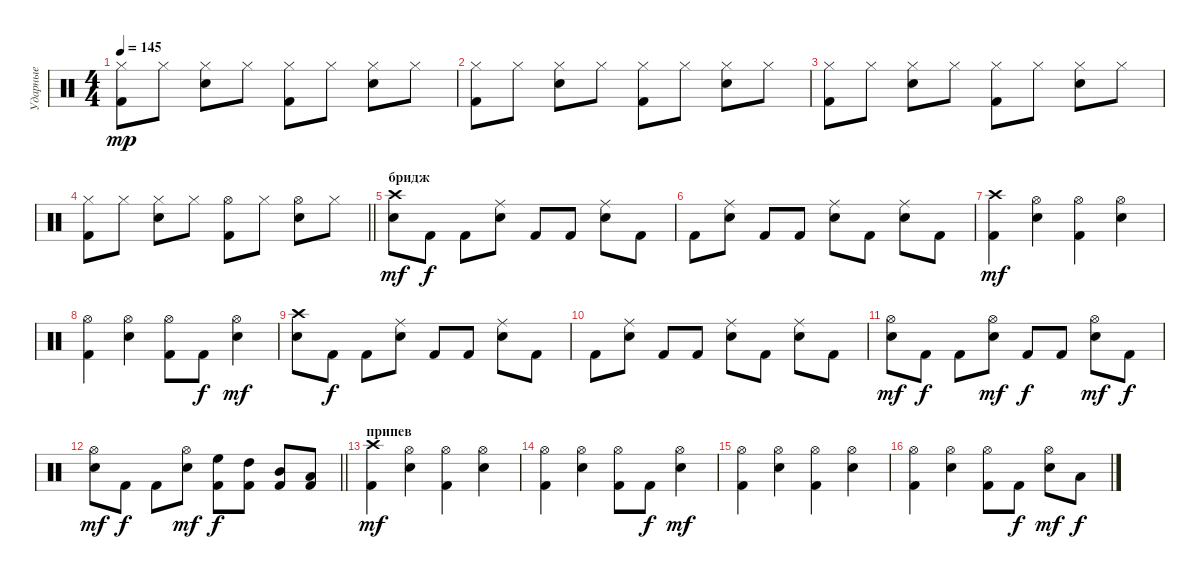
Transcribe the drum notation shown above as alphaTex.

\track ("Ударные" "Ударные") {instrument percussion}
\staff {score}
\articulation defaults
\ts (4 4)
\tempo 145
\clef neutral
\ks c
("Kick (hit) 2" "Hi-Hat (closed)").8{dy mp} "Hi-Hat (closed)".8 ("Snare (hit) 2" "Hi-Hat (closed)").8 "Hi-Hat (closed)".8 ("Kick (hit) 2" "Hi-Hat (closed)").8 "Hi-Hat (closed)".8 ("Snare (hit) 2" "Hi-Hat (closed)").8 "Hi-Hat (closed)".8 |
("Kick (hit) 2" "Hi-Hat (closed)").8 "Hi-Hat (closed)".8 ("Snare (hit) 2" "Hi-Hat (closed)").8 "Hi-Hat (closed)".8 ("Kick (hit) 2" "Hi-Hat (closed)").8 "Hi-Hat (closed)".8 ("Snare (hit) 2" "Hi-Hat (closed)").8 "Hi-Hat (closed)".8 |
("Kick (hit) 2" "Hi-Hat (closed)").8 "Hi-Hat (closed)".8 ("Snare (hit) 2" "Hi-Hat (closed)").8 "Hi-Hat (closed)".8 ("Kick (hit) 2" "Hi-Hat (closed)").8 "Hi-Hat (closed)".8 ("Snare (hit) 2" "Hi-Hat (closed)").8 "Hi-Hat (closed)".8 |
\barLineRight lightlight
("Kick (hit) 2" "Hi-Hat (closed)").8 "Hi-Hat (closed)".8 ("Snare (hit) 2" "Hi-Hat (closed)").8 "Hi-Hat (closed)".8 ("Kick (hit) 2" "Hi-Hat (open)").8 "Hi-Hat (closed)".8 ("Snare (hit) 2" "Hi-Hat (open)").8 "Hi-Hat (closed)".8 |
\section ("" "бридж")
("Snare (hit) 2" "Crash high (hit)").8{dy mf} "Kick (hit) 2".8{dy f} "Kick (hit) 2".8 ("Snare (hit) 2" "Ride (middle)").8 "Kick (hit) 2".8 "Kick (hit) 2".8 ("Snare (hit) 2" "Ride (middle)").8 "Kick (hit) 2".8 |
"Kick (hit) 2".8 ("Snare (hit) 2" "Ride (middle)").8 "Kick (hit) 2".8 "Kick (hit) 2".8 ("Snare (hit) 2" "Ride (middle)").8 "Kick (hit) 2".8 ("Snare (hit) 2" "Ride (middle)").8 "Kick (hit) 2".8 |
("Kick (hit) 2" "Crash high (hit)").4{dy mf} ("Snare (hit) 2" "Hi-Hat (open)").4 ("Kick (hit) 2" "Hi-Hat (open)").4 ("Snare (hit) 2" "Hi-Hat (open)").4 |
("Kick (hit) 2" "Hi-Hat (open)").4 ("Snare (hit) 2" "Hi-Hat (open)").4 ("Kick (hit) 2" "Hi-Hat (open)").8 "Kick (hit) 2".8{dy f} ("Snare (hit) 2" "Hi-Hat (open)").4{dy mf} |
("Snare (hit) 2" "Crash high (hit)").8 "Kick (hit) 2".8{dy f} "Kick (hit) 2".8 ("Snare (hit) 2" "Ride (middle)").8 "Kick (hit) 2".8 "Kick (hit) 2".8 ("Snare (hit) 2" "Ride (middle)").8 "Kick (hit) 2".8 |
"Kick (hit) 2".8 ("Snare (hit) 2" "Ride (middle)").8 "Kick (hit) 2".8 "Kick (hit) 2".8 ("Snare (hit) 2" "Ride (middle)").8 "Kick (hit) 2".8 ("Snare (hit) 2" "Ride (middle)").8 "Kick (hit) 2".8 |
("Snare (hit) 2" "Hi-Hat (open)").8{dy mf} "Kick (hit) 2".8{dy f} "Kick (hit) 2".8 ("Snare (hit) 2" "Hi-Hat (open)").8{dy mf} "Kick (hit) 2".8{dy f} "Kick (hit) 2".8 ("Snare (hit) 2" "Hi-Hat (open)").8{dy mf} "Kick (hit) 2".8{dy f} |
\barLineRight lightlight
("Snare (hit) 2" "Hi-Hat (open)").8{dy mf} "Kick (hit) 2".8{dy f} "Kick (hit) 2".8 ("Snare (hit) 2" "Hi-Hat (open)").8{dy mf} ("Kick (hit) 2" "High Floor Tom (hit)").8{dy f} ("Kick (hit) 2" "High Tom (hit)").8 ("Kick (hit) 2" "Mid Tom (hit)").8 ("Kick (hit) 2" "Low Tom (hit)").8 |
\section ("" "припев")
("Kick (hit) 2" "Crash high (hit)").4{dy mf} ("Snare (hit) 2" "Hi-Hat (open)").4 ("Kick (hit) 2" "Hi-Hat (open)").4 ("Snare (hit) 2" "Hi-Hat (open)").4 |
("Kick (hit) 2" "Hi-Hat (open)").4 ("Snare (hit) 2" "Hi-Hat (open)").4 ("Kick (hit) 2" "Hi-Hat (open)").8 "Kick (hit) 2".8{dy f} ("Snare (hit) 2" "Hi-Hat (open)").4{dy mf} |
("Kick (hit) 2" "Hi-Hat (open)").4 ("Snare (hit) 2" "Hi-Hat (open)").4 ("Kick (hit) 2" "Hi-Hat (open)").4 ("Snare (hit) 2" "Hi-Hat (open)").4 |
("Kick (hit) 2" "Hi-Hat (open)").4 ("Snare (hit) 2" "Hi-Hat (open)").4 ("Kick (hit) 2" "Hi-Hat (open)").8 "Kick (hit) 2".8{dy f} ("Snare (hit) 2" "Hi-Hat (open)").8{dy mf} "Low Floor Tom (hit)".8{dy f}
